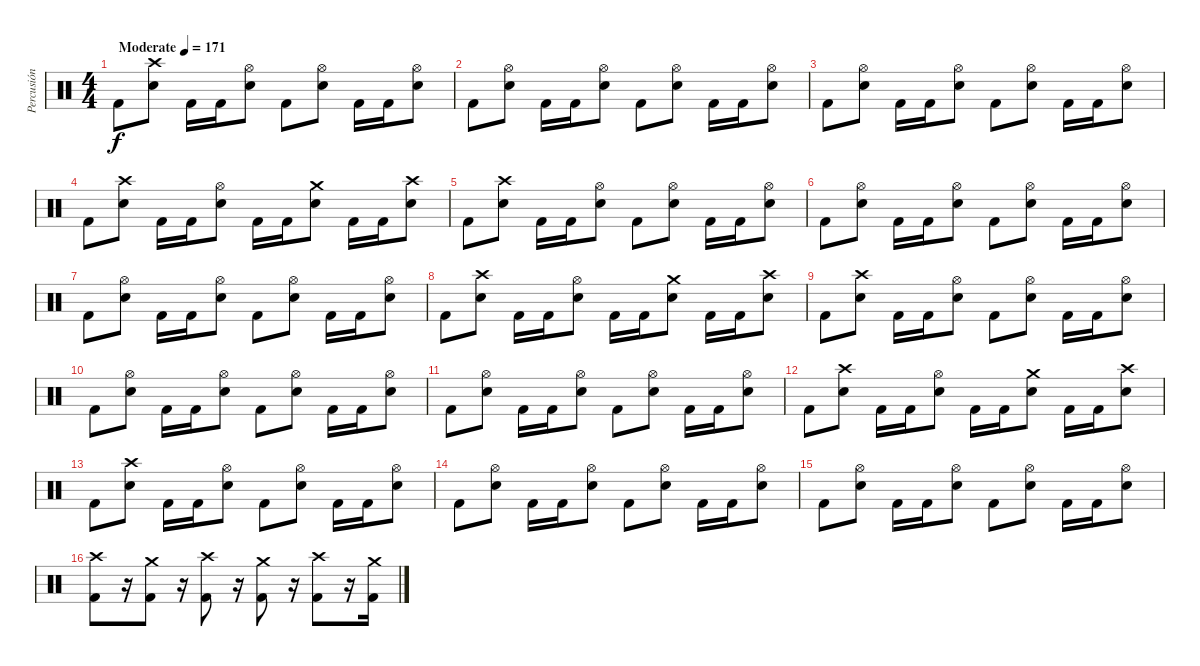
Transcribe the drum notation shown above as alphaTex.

\track ("Percusión" "Percusión") {instrument percussion}
\staff {score}
\articulation defaults
\ts (4 4)
\tempo (171 "Moderate")
\clef neutral
\ks c "Kick (hit) 2".8{dy f}
("Crash high (hit)" "Electric Snare (hit)").8 "Kick (hit) 2".16 "Kick (hit) 2".16 ("Hi-Hat (open)" "Electric Snare (hit)").8 "Kick (hit) 2".8 ("Hi-Hat (open)" "Electric Snare (hit)").8 "Kick (hit) 2".16 "Kick (hit) 2".16 ("Hi-Hat (open)" "Electric Snare (hit)").8 |
"Kick (hit) 2".8 ("Hi-Hat (open)" "Electric Snare (hit)").8 "Kick (hit) 2".16 "Kick (hit) 2".16 ("Hi-Hat (open)" "Electric Snare (hit)").8 "Kick (hit) 2".8 ("Hi-Hat (open)" "Electric Snare (hit)").8 "Kick (hit) 2".16 "Kick (hit) 2".16 ("Hi-Hat (open)" "Electric Snare (hit)").8 |
"Kick (hit) 2".8 ("Hi-Hat (open)" "Electric Snare (hit)").8 "Kick (hit) 2".16 "Kick (hit) 2".16 ("Hi-Hat (open)" "Electric Snare (hit)").8 "Kick (hit) 2".8 ("Hi-Hat (open)" "Electric Snare (hit)").8 "Kick (hit) 2".16 "Kick (hit) 2".16 ("Hi-Hat (open)" "Electric Snare (hit)").8 |
"Kick (hit) 2".8 ("Crash high (hit)" "Electric Snare (hit)").8 "Kick (hit) 2".16 "Kick (hit) 2".16 ("Hi-Hat (open)" "Electric Snare (hit)").8 "Kick (hit) 2".16 "Kick (hit) 2".16 ("Crash medium (hit)" "Electric Snare (hit)").8 "Kick (hit) 2".16 "Kick (hit) 2".16 ("Crash high (hit)" "Electric Snare (hit)").8 |
"Kick (hit) 2".8 ("Crash high (hit)" "Electric Snare (hit)").8 "Kick (hit) 2".16 "Kick (hit) 2".16 ("Hi-Hat (open)" "Electric Snare (hit)").8 "Kick (hit) 2".8 ("Hi-Hat (open)" "Electric Snare (hit)").8 "Kick (hit) 2".16 "Kick (hit) 2".16 ("Hi-Hat (open)" "Electric Snare (hit)").8 |
"Kick (hit) 2".8 ("Hi-Hat (open)" "Electric Snare (hit)").8 "Kick (hit) 2".16 "Kick (hit) 2".16 ("Hi-Hat (open)" "Electric Snare (hit)").8 "Kick (hit) 2".8 ("Hi-Hat (open)" "Electric Snare (hit)").8 "Kick (hit) 2".16 "Kick (hit) 2".16 ("Hi-Hat (open)" "Electric Snare (hit)").8 |
"Kick (hit) 2".8 ("Hi-Hat (open)" "Electric Snare (hit)").8 "Kick (hit) 2".16 "Kick (hit) 2".16 ("Hi-Hat (open)" "Electric Snare (hit)").8 "Kick (hit) 2".8 ("Hi-Hat (open)" "Electric Snare (hit)").8 "Kick (hit) 2".16 "Kick (hit) 2".16 ("Hi-Hat (open)" "Electric Snare (hit)").8 |
"Kick (hit) 2".8 ("Crash high (hit)" "Electric Snare (hit)").8 "Kick (hit) 2".16 "Kick (hit) 2".16 ("Hi-Hat (open)" "Electric Snare (hit)").8 "Kick (hit) 2".16 "Kick (hit) 2".16 ("Crash medium (hit)" "Electric Snare (hit)").8 "Kick (hit) 2".16 "Kick (hit) 2".16 ("Crash high (hit)" "Electric Snare (hit)").8 |
"Kick (hit) 2".8 ("Crash high (hit)" "Electric Snare (hit)").8 "Kick (hit) 2".16 "Kick (hit) 2".16 ("Hi-Hat (open)" "Electric Snare (hit)").8 "Kick (hit) 2".8 ("Hi-Hat (open)" "Electric Snare (hit)").8 "Kick (hit) 2".16 "Kick (hit) 2".16 ("Hi-Hat (open)" "Electric Snare (hit)").8 |
"Kick (hit) 2".8 ("Hi-Hat (open)" "Electric Snare (hit)").8 "Kick (hit) 2".16 "Kick (hit) 2".16 ("Hi-Hat (open)" "Electric Snare (hit)").8 "Kick (hit) 2".8 ("Hi-Hat (open)" "Electric Snare (hit)").8 "Kick (hit) 2".16 "Kick (hit) 2".16 ("Hi-Hat (open)" "Electric Snare (hit)").8 |
"Kick (hit) 2".8 ("Hi-Hat (open)" "Electric Snare (hit)").8 "Kick (hit) 2".16 "Kick (hit) 2".16 ("Hi-Hat (open)" "Electric Snare (hit)").8 "Kick (hit) 2".8 ("Hi-Hat (open)" "Electric Snare (hit)").8 "Kick (hit) 2".16 "Kick (hit) 2".16 ("Hi-Hat (open)" "Electric Snare (hit)").8 |
"Kick (hit) 2".8 ("Crash high (hit)" "Electric Snare (hit)").8 "Kick (hit) 2".16 "Kick (hit) 2".16 ("Hi-Hat (open)" "Electric Snare (hit)").8 "Kick (hit) 2".16 "Kick (hit) 2".16 ("Crash medium (hit)" "Electric Snare (hit)").8 "Kick (hit) 2".16 "Kick (hit) 2".16 ("Crash high (hit)" "Electric Snare (hit)").8 |
"Kick (hit) 2".8 ("Crash high (hit)" "Electric Snare (hit)").8 "Kick (hit) 2".16 "Kick (hit) 2".16 ("Hi-Hat (open)" "Electric Snare (hit)").8 "Kick (hit) 2".8 ("Hi-Hat (open)" "Electric Snare (hit)").8 "Kick (hit) 2".16 "Kick (hit) 2".16 ("Hi-Hat (open)" "Electric Snare (hit)").8 |
"Kick (hit) 2".8 ("Hi-Hat (open)" "Electric Snare (hit)").8 "Kick (hit) 2".16 "Kick (hit) 2".16 ("Hi-Hat (open)" "Electric Snare (hit)").8 "Kick (hit) 2".8 ("Hi-Hat (open)" "Electric Snare (hit)").8 "Kick (hit) 2".16 "Kick (hit) 2".16 ("Hi-Hat (open)" "Electric Snare (hit)").8 |
"Kick (hit) 2".8 ("Hi-Hat (open)" "Electric Snare (hit)").8 "Kick (hit) 2".16 "Kick (hit) 2".16 ("Hi-Hat (open)" "Electric Snare (hit)").8 "Kick (hit) 2".8 ("Hi-Hat (open)" "Electric Snare (hit)").8 "Kick (hit) 2".16 "Kick (hit) 2".16 ("Hi-Hat (open)" "Electric Snare (hit)").8 |
("Crash high (hit)" "Kick (hit) 2").8 r.16 ("Crash medium (hit)" "Kick (hit) 2").8 r.16 ("Crash high (hit)" "Kick (hit) 2").8 r.16 ("Crash medium (hit)" "Kick (hit) 2").8 r.16 ("Crash high (hit)" "Kick (hit) 2").8 r.16 ("Crash medium (hit)" "Kick (hit) 2").16
